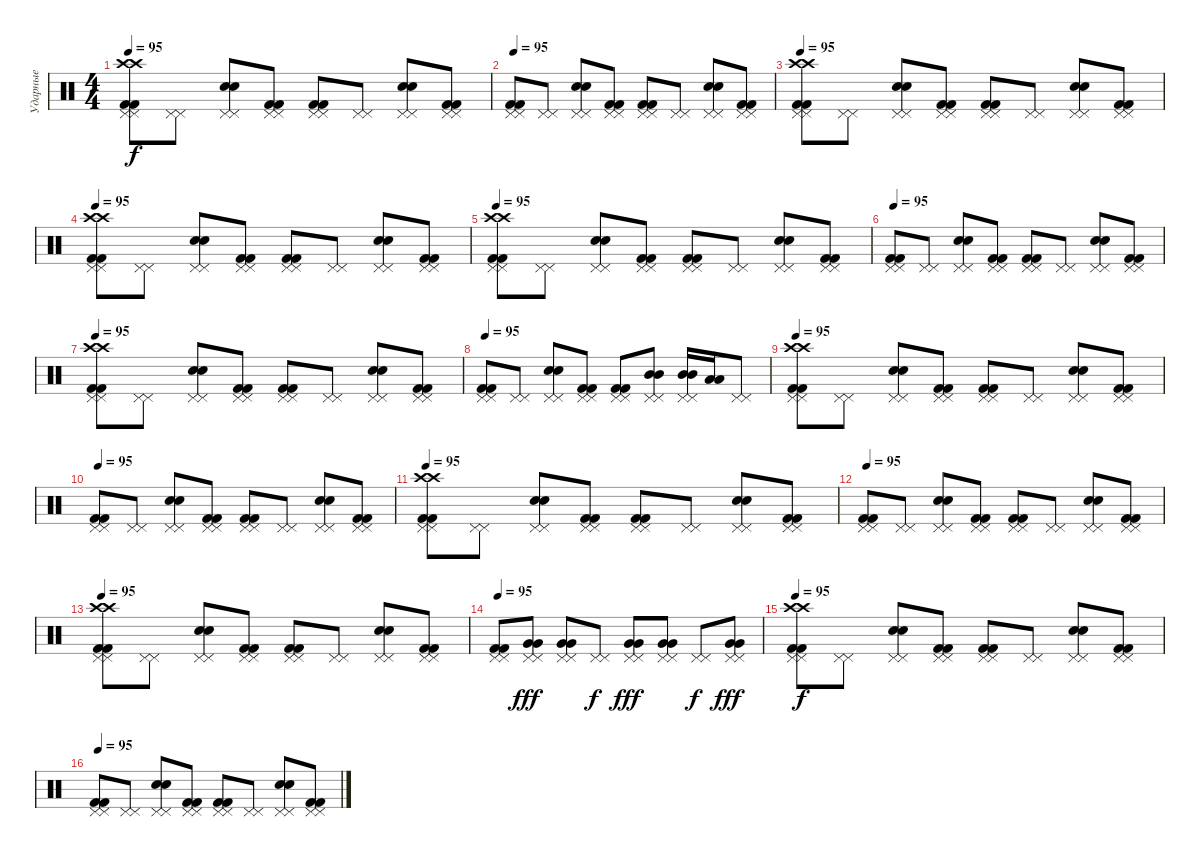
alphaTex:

\track ("Ударные" "Ударные") {instrument percussion}
\staff {score}
\articulation defaults
\ts (4 4)
\tempo 95
\clef neutral
\ks c
("Kick (hit) 2" "Kick (hit) 2" "Pedal Hi-Hat (hit)" "Pedal Hi-Hat (hit)" "Crash high (hit)" "Crash high (hit)").8{dy f} ("Pedal Hi-Hat (hit)" "Pedal Hi-Hat (hit)").8 ("Pedal Hi-Hat (hit)" "Pedal Hi-Hat (hit)" "Electric Snare (hit)" "Electric Snare (hit)").8 ("Pedal Hi-Hat (hit)" "Pedal Hi-Hat (hit)" "Kick (hit) 2" "Kick (hit) 2").8 ("Pedal Hi-Hat (hit)" "Pedal Hi-Hat (hit)" "Kick (hit) 2" "Kick (hit) 2").8 ("Pedal Hi-Hat (hit)" "Pedal Hi-Hat (hit)").8 ("Pedal Hi-Hat (hit)" "Pedal Hi-Hat (hit)" "Electric Snare (hit)" "Electric Snare (hit)").8 ("Pedal Hi-Hat (hit)" "Pedal Hi-Hat (hit)" "Kick (hit) 2" "Kick (hit) 2").8 |
\tempo 95
("Kick (hit) 2" "Kick (hit) 2" "Pedal Hi-Hat (hit)" "Pedal Hi-Hat (hit)").8 ("Pedal Hi-Hat (hit)" "Pedal Hi-Hat (hit)").8 ("Pedal Hi-Hat (hit)" "Pedal Hi-Hat (hit)" "Electric Snare (hit)" "Electric Snare (hit)").8 ("Pedal Hi-Hat (hit)" "Pedal Hi-Hat (hit)" "Kick (hit) 2" "Kick (hit) 2").8 ("Pedal Hi-Hat (hit)" "Pedal Hi-Hat (hit)" "Kick (hit) 2" "Kick (hit) 2").8 ("Pedal Hi-Hat (hit)" "Pedal Hi-Hat (hit)").8 ("Pedal Hi-Hat (hit)" "Pedal Hi-Hat (hit)" "Electric Snare (hit)" "Electric Snare (hit)").8 ("Pedal Hi-Hat (hit)" "Pedal Hi-Hat (hit)" "Kick (hit) 2" "Kick (hit) 2").8 |
\tempo 95
("Kick (hit) 2" "Kick (hit) 2" "Pedal Hi-Hat (hit)" "Pedal Hi-Hat (hit)" "Crash high (hit)" "Crash high (hit)").8 ("Pedal Hi-Hat (hit)" "Pedal Hi-Hat (hit)").8 ("Pedal Hi-Hat (hit)" "Pedal Hi-Hat (hit)" "Electric Snare (hit)" "Electric Snare (hit)").8 ("Pedal Hi-Hat (hit)" "Pedal Hi-Hat (hit)" "Kick (hit) 2" "Kick (hit) 2").8 ("Pedal Hi-Hat (hit)" "Pedal Hi-Hat (hit)" "Kick (hit) 2" "Kick (hit) 2").8 ("Pedal Hi-Hat (hit)" "Pedal Hi-Hat (hit)").8 ("Pedal Hi-Hat (hit)" "Pedal Hi-Hat (hit)" "Electric Snare (hit)" "Electric Snare (hit)").8 ("Pedal Hi-Hat (hit)" "Pedal Hi-Hat (hit)" "Kick (hit) 2" "Kick (hit) 2").8 |
\tempo 95
("Kick (hit) 2" "Kick (hit) 2" "Pedal Hi-Hat (hit)" "Pedal Hi-Hat (hit)" "Crash high (hit)" "Crash high (hit)").8 ("Pedal Hi-Hat (hit)" "Pedal Hi-Hat (hit)").8 ("Pedal Hi-Hat (hit)" "Pedal Hi-Hat (hit)" "Electric Snare (hit)" "Electric Snare (hit)").8 ("Pedal Hi-Hat (hit)" "Pedal Hi-Hat (hit)" "Kick (hit) 2" "Kick (hit) 2").8 ("Pedal Hi-Hat (hit)" "Pedal Hi-Hat (hit)" "Kick (hit) 2" "Kick (hit) 2").8 ("Pedal Hi-Hat (hit)" "Pedal Hi-Hat (hit)").8 ("Pedal Hi-Hat (hit)" "Pedal Hi-Hat (hit)" "Electric Snare (hit)" "Electric Snare (hit)").8 ("Pedal Hi-Hat (hit)" "Pedal Hi-Hat (hit)" "Kick (hit) 2" "Kick (hit) 2").8 |
\tempo 95
("Kick (hit) 2" "Kick (hit) 2" "Pedal Hi-Hat (hit)" "Pedal Hi-Hat (hit)" "Crash high (hit)" "Crash high (hit)").8 ("Pedal Hi-Hat (hit)" "Pedal Hi-Hat (hit)").8 ("Pedal Hi-Hat (hit)" "Pedal Hi-Hat (hit)" "Electric Snare (hit)" "Electric Snare (hit)").8 ("Pedal Hi-Hat (hit)" "Pedal Hi-Hat (hit)" "Kick (hit) 2" "Kick (hit) 2").8 ("Pedal Hi-Hat (hit)" "Pedal Hi-Hat (hit)" "Kick (hit) 2" "Kick (hit) 2").8 ("Pedal Hi-Hat (hit)" "Pedal Hi-Hat (hit)").8 ("Pedal Hi-Hat (hit)" "Pedal Hi-Hat (hit)" "Electric Snare (hit)" "Electric Snare (hit)").8 ("Pedal Hi-Hat (hit)" "Pedal Hi-Hat (hit)" "Kick (hit) 2" "Kick (hit) 2").8 |
\tempo 95
("Kick (hit) 2" "Kick (hit) 2" "Pedal Hi-Hat (hit)" "Pedal Hi-Hat (hit)").8 ("Pedal Hi-Hat (hit)" "Pedal Hi-Hat (hit)").8 ("Pedal Hi-Hat (hit)" "Pedal Hi-Hat (hit)" "Electric Snare (hit)" "Electric Snare (hit)").8 ("Pedal Hi-Hat (hit)" "Pedal Hi-Hat (hit)" "Kick (hit) 2" "Kick (hit) 2").8 ("Pedal Hi-Hat (hit)" "Pedal Hi-Hat (hit)" "Kick (hit) 2" "Kick (hit) 2").8 ("Pedal Hi-Hat (hit)" "Pedal Hi-Hat (hit)").8 ("Pedal Hi-Hat (hit)" "Pedal Hi-Hat (hit)" "Electric Snare (hit)" "Electric Snare (hit)").8 ("Pedal Hi-Hat (hit)" "Pedal Hi-Hat (hit)" "Kick (hit) 2" "Kick (hit) 2").8 |
\tempo 95
("Kick (hit) 2" "Kick (hit) 2" "Pedal Hi-Hat (hit)" "Pedal Hi-Hat (hit)" "Crash high (hit)" "Crash high (hit)").8 ("Pedal Hi-Hat (hit)" "Pedal Hi-Hat (hit)").8 ("Pedal Hi-Hat (hit)" "Pedal Hi-Hat (hit)" "Electric Snare (hit)" "Electric Snare (hit)").8 ("Pedal Hi-Hat (hit)" "Pedal Hi-Hat (hit)" "Kick (hit) 2" "Kick (hit) 2").8 ("Pedal Hi-Hat (hit)" "Pedal Hi-Hat (hit)" "Kick (hit) 2" "Kick (hit) 2").8 ("Pedal Hi-Hat (hit)" "Pedal Hi-Hat (hit)").8 ("Pedal Hi-Hat (hit)" "Pedal Hi-Hat (hit)" "Electric Snare (hit)" "Electric Snare (hit)").8 ("Pedal Hi-Hat (hit)" "Pedal Hi-Hat (hit)" "Kick (hit) 2" "Kick (hit) 2").8 |
\tempo 95
("Kick (hit) 2" "Kick (hit) 2" "Pedal Hi-Hat (hit)" "Pedal Hi-Hat (hit)").8 ("Pedal Hi-Hat (hit)" "Pedal Hi-Hat (hit)").8 ("Pedal Hi-Hat (hit)" "Pedal Hi-Hat (hit)" "Electric Snare (hit)" "Electric Snare (hit)").8 ("Pedal Hi-Hat (hit)" "Pedal Hi-Hat (hit)" "Kick (hit) 2" "Kick (hit) 2").8 ("Pedal Hi-Hat (hit)" "Pedal Hi-Hat (hit)" "Kick (hit) 2" "Kick (hit) 2").8 ("Mid Tom (hit)" "Mid Tom (hit)" "Pedal Hi-Hat (hit)" "Pedal Hi-Hat (hit)").8 ("Mid Tom (hit)" "Mid Tom (hit)" "Pedal Hi-Hat (hit)" "Pedal Hi-Hat (hit)").16 ("Low Tom (hit)" "Low Tom (hit)").16 ("Pedal Hi-Hat (hit)" "Pedal Hi-Hat (hit)").8 |
\tempo 95
("Kick (hit) 2" "Kick (hit) 2" "Pedal Hi-Hat (hit)" "Pedal Hi-Hat (hit)" "Crash high (hit)" "Crash high (hit)").8 ("Pedal Hi-Hat (hit)" "Pedal Hi-Hat (hit)").8 ("Pedal Hi-Hat (hit)" "Pedal Hi-Hat (hit)" "Electric Snare (hit)" "Electric Snare (hit)").8 ("Pedal Hi-Hat (hit)" "Pedal Hi-Hat (hit)" "Kick (hit) 2" "Kick (hit) 2").8 ("Pedal Hi-Hat (hit)" "Pedal Hi-Hat (hit)" "Kick (hit) 2" "Kick (hit) 2").8 ("Pedal Hi-Hat (hit)" "Pedal Hi-Hat (hit)").8 ("Pedal Hi-Hat (hit)" "Pedal Hi-Hat (hit)" "Electric Snare (hit)" "Electric Snare (hit)").8 ("Pedal Hi-Hat (hit)" "Pedal Hi-Hat (hit)" "Kick (hit) 2" "Kick (hit) 2").8 |
\tempo 95
("Kick (hit) 2" "Kick (hit) 2" "Pedal Hi-Hat (hit)" "Pedal Hi-Hat (hit)").8 ("Pedal Hi-Hat (hit)" "Pedal Hi-Hat (hit)").8 ("Pedal Hi-Hat (hit)" "Pedal Hi-Hat (hit)" "Electric Snare (hit)" "Electric Snare (hit)").8 ("Pedal Hi-Hat (hit)" "Pedal Hi-Hat (hit)" "Kick (hit) 2" "Kick (hit) 2").8 ("Pedal Hi-Hat (hit)" "Pedal Hi-Hat (hit)" "Kick (hit) 2" "Kick (hit) 2").8 ("Pedal Hi-Hat (hit)" "Pedal Hi-Hat (hit)").8 ("Pedal Hi-Hat (hit)" "Pedal Hi-Hat (hit)" "Electric Snare (hit)" "Electric Snare (hit)").8 ("Pedal Hi-Hat (hit)" "Pedal Hi-Hat (hit)" "Kick (hit) 2" "Kick (hit) 2").8 |
\tempo 95
("Kick (hit) 2" "Kick (hit) 2" "Pedal Hi-Hat (hit)" "Pedal Hi-Hat (hit)" "Crash high (hit)" "Crash high (hit)").8 ("Pedal Hi-Hat (hit)" "Pedal Hi-Hat (hit)").8 ("Pedal Hi-Hat (hit)" "Pedal Hi-Hat (hit)" "Electric Snare (hit)" "Electric Snare (hit)").8 ("Pedal Hi-Hat (hit)" "Pedal Hi-Hat (hit)" "Kick (hit) 2" "Kick (hit) 2").8 ("Pedal Hi-Hat (hit)" "Pedal Hi-Hat (hit)" "Kick (hit) 2" "Kick (hit) 2").8 ("Pedal Hi-Hat (hit)" "Pedal Hi-Hat (hit)").8 ("Pedal Hi-Hat (hit)" "Pedal Hi-Hat (hit)" "Electric Snare (hit)" "Electric Snare (hit)").8 ("Pedal Hi-Hat (hit)" "Pedal Hi-Hat (hit)" "Kick (hit) 2" "Kick (hit) 2").8 |
\tempo 95
("Kick (hit) 2" "Kick (hit) 2" "Pedal Hi-Hat (hit)" "Pedal Hi-Hat (hit)").8 ("Pedal Hi-Hat (hit)" "Pedal Hi-Hat (hit)").8 ("Pedal Hi-Hat (hit)" "Pedal Hi-Hat (hit)" "Electric Snare (hit)" "Electric Snare (hit)").8 ("Pedal Hi-Hat (hit)" "Pedal Hi-Hat (hit)" "Kick (hit) 2" "Kick (hit) 2").8 ("Pedal Hi-Hat (hit)" "Pedal Hi-Hat (hit)" "Kick (hit) 2" "Kick (hit) 2").8 ("Pedal Hi-Hat (hit)" "Pedal Hi-Hat (hit)").8 ("Pedal Hi-Hat (hit)" "Pedal Hi-Hat (hit)" "Electric Snare (hit)" "Electric Snare (hit)").8 ("Pedal Hi-Hat (hit)" "Pedal Hi-Hat (hit)" "Kick (hit) 2" "Kick (hit) 2").8 |
\tempo 95
("Kick (hit) 2" "Kick (hit) 2" "Pedal Hi-Hat (hit)" "Pedal Hi-Hat (hit)" "Crash high (hit)" "Crash high (hit)").8 ("Pedal Hi-Hat (hit)" "Pedal Hi-Hat (hit)").8 ("Pedal Hi-Hat (hit)" "Pedal Hi-Hat (hit)" "Electric Snare (hit)" "Electric Snare (hit)").8 ("Pedal Hi-Hat (hit)" "Pedal Hi-Hat (hit)" "Kick (hit) 2" "Kick (hit) 2").8 ("Pedal Hi-Hat (hit)" "Pedal Hi-Hat (hit)" "Kick (hit) 2" "Kick (hit) 2").8 ("Pedal Hi-Hat (hit)" "Pedal Hi-Hat (hit)").8 ("Pedal Hi-Hat (hit)" "Pedal Hi-Hat (hit)" "Electric Snare (hit)" "Electric Snare (hit)").8 ("Pedal Hi-Hat (hit)" "Pedal Hi-Hat (hit)" "Kick (hit) 2" "Kick (hit) 2").8 |
\tempo 95
("Kick (hit) 2" "Kick (hit) 2" "Pedal Hi-Hat (hit)" "Pedal Hi-Hat (hit)").8 ("Pedal Hi-Hat (hit)" "Pedal Hi-Hat (hit)" "Very Low Tom (hit)" "Very Low Tom (hit)").8{dy fff} ("Pedal Hi-Hat (hit)" "Pedal Hi-Hat (hit)" "Very Low Tom (hit)" "Very Low Tom (hit)").8 ("Pedal Hi-Hat (hit)" "Pedal Hi-Hat (hit)").8{dy f} ("Pedal Hi-Hat (hit)" "Pedal Hi-Hat (hit)" "Very Low Tom (hit)" "Very Low Tom (hit)").8{dy fff} ("Pedal Hi-Hat (hit)" "Pedal Hi-Hat (hit)" "Very Low Tom (hit)" "Very Low Tom (hit)").8 ("Pedal Hi-Hat (hit)" "Pedal Hi-Hat (hit)").8{dy f} ("Pedal Hi-Hat (hit)" "Pedal Hi-Hat (hit)" "Very Low Tom (hit)" "Very Low Tom (hit)").8{dy fff} |
\tempo 95
("Kick (hit) 2" "Kick (hit) 2" "Pedal Hi-Hat (hit)" "Pedal Hi-Hat (hit)" "Crash high (hit)" "Crash high (hit)").8{dy f} ("Pedal Hi-Hat (hit)" "Pedal Hi-Hat (hit)").8 ("Pedal Hi-Hat (hit)" "Pedal Hi-Hat (hit)" "Electric Snare (hit)" "Electric Snare (hit)").8 ("Pedal Hi-Hat (hit)" "Pedal Hi-Hat (hit)" "Kick (hit) 2" "Kick (hit) 2").8 ("Pedal Hi-Hat (hit)" "Pedal Hi-Hat (hit)" "Kick (hit) 2" "Kick (hit) 2").8 ("Pedal Hi-Hat (hit)" "Pedal Hi-Hat (hit)").8 ("Pedal Hi-Hat (hit)" "Pedal Hi-Hat (hit)" "Electric Snare (hit)" "Electric Snare (hit)").8 ("Pedal Hi-Hat (hit)" "Pedal Hi-Hat (hit)" "Kick (hit) 2" "Kick (hit) 2").8 |
\tempo 95
("Kick (hit) 2" "Kick (hit) 2" "Pedal Hi-Hat (hit)" "Pedal Hi-Hat (hit)").8 ("Pedal Hi-Hat (hit)" "Pedal Hi-Hat (hit)").8 ("Pedal Hi-Hat (hit)" "Pedal Hi-Hat (hit)" "Electric Snare (hit)" "Electric Snare (hit)").8 ("Pedal Hi-Hat (hit)" "Pedal Hi-Hat (hit)" "Kick (hit) 2" "Kick (hit) 2").8 ("Pedal Hi-Hat (hit)" "Pedal Hi-Hat (hit)" "Kick (hit) 2" "Kick (hit) 2").8 ("Pedal Hi-Hat (hit)" "Pedal Hi-Hat (hit)").8 ("Pedal Hi-Hat (hit)" "Pedal Hi-Hat (hit)" "Electric Snare (hit)" "Electric Snare (hit)").8 ("Pedal Hi-Hat (hit)" "Pedal Hi-Hat (hit)" "Kick (hit) 2" "Kick (hit) 2").8
